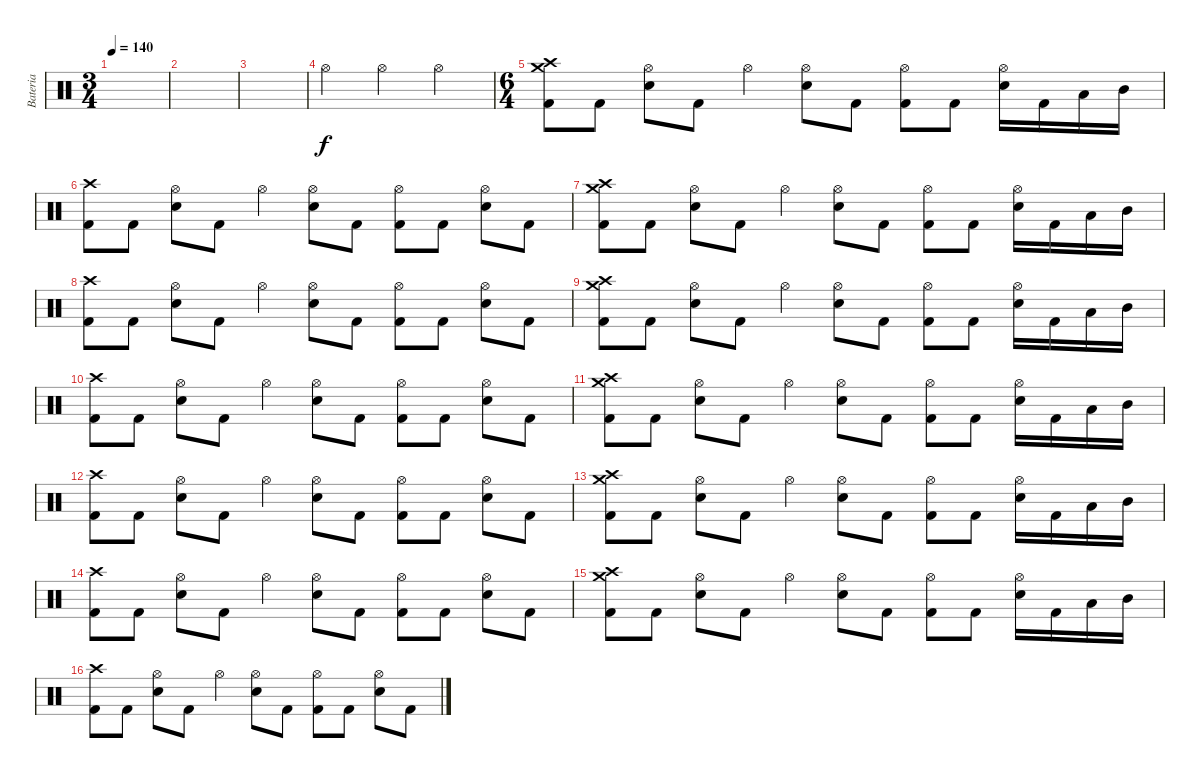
\track ("Bateria" "Bateria") {instrument percussion}
\staff {score}
\articulation defaults
\ts (3 4)
\tempo 140
\clef neutral
\ks c
|
|
|
"Hi-Hat (open)".4 "Hi-Hat (open)".4 "Hi-Hat (open)".4 |
\ts (6 4)
("Crash medium (hit)" "Crash high (hit)" "Kick (hit) 2").8 "Kick (hit) 2".8 ("Hi-Hat (open)" "Snare (hit) 2").8 "Kick (hit) 2".8 "Hi-Hat (open)".4 ("Hi-Hat (open)" "Snare (hit) 2").8 "Kick (hit) 2".8 ("Hi-Hat (open)" "Kick (hit) 2").8 "Kick (hit) 2".8 ("Hi-Hat (open)" "Snare (hit) 2").16 "Kick (hit) 2".16 "Low Tom (hit)".16 "Mid Tom (hit)".16 |
("Crash high (hit)" "Kick (hit) 2").8 "Kick (hit) 2".8 ("Hi-Hat (open)" "Snare (hit) 2").8 "Kick (hit) 2".8 "Hi-Hat (open)".4 ("Hi-Hat (open)" "Snare (hit) 2").8 "Kick (hit) 2".8 ("Hi-Hat (open)" "Kick (hit) 2").8 "Kick (hit) 2".8 ("Hi-Hat (open)" "Snare (hit) 2").8 "Kick (hit) 2".8 |
("Crash medium (hit)" "Crash high (hit)" "Kick (hit) 2").8 "Kick (hit) 2".8 ("Hi-Hat (open)" "Snare (hit) 2").8 "Kick (hit) 2".8 "Hi-Hat (open)".4 ("Hi-Hat (open)" "Snare (hit) 2").8 "Kick (hit) 2".8 ("Hi-Hat (open)" "Kick (hit) 2").8 "Kick (hit) 2".8 ("Hi-Hat (open)" "Snare (hit) 2").16 "Kick (hit) 2".16 "Low Tom (hit)".16 "Mid Tom (hit)".16 |
("Crash high (hit)" "Kick (hit) 2").8 "Kick (hit) 2".8 ("Hi-Hat (open)" "Snare (hit) 2").8 "Kick (hit) 2".8 "Hi-Hat (open)".4 ("Hi-Hat (open)" "Snare (hit) 2").8 "Kick (hit) 2".8 ("Hi-Hat (open)" "Kick (hit) 2").8 "Kick (hit) 2".8 ("Hi-Hat (open)" "Snare (hit) 2").8 "Kick (hit) 2".8 |
("Crash medium (hit)" "Crash high (hit)" "Kick (hit) 2").8 "Kick (hit) 2".8 ("Hi-Hat (open)" "Snare (hit) 2").8 "Kick (hit) 2".8 "Hi-Hat (open)".4 ("Hi-Hat (open)" "Snare (hit) 2").8 "Kick (hit) 2".8 ("Hi-Hat (open)" "Kick (hit) 2").8 "Kick (hit) 2".8 ("Hi-Hat (open)" "Snare (hit) 2").16 "Kick (hit) 2".16 "Low Tom (hit)".16 "Mid Tom (hit)".16 |
("Crash high (hit)" "Kick (hit) 2").8 "Kick (hit) 2".8 ("Hi-Hat (open)" "Snare (hit) 2").8 "Kick (hit) 2".8 "Hi-Hat (open)".4 ("Hi-Hat (open)" "Snare (hit) 2").8 "Kick (hit) 2".8 ("Hi-Hat (open)" "Kick (hit) 2").8 "Kick (hit) 2".8 ("Hi-Hat (open)" "Snare (hit) 2").8 "Kick (hit) 2".8 |
("Crash medium (hit)" "Crash high (hit)" "Kick (hit) 2").8 "Kick (hit) 2".8 ("Hi-Hat (open)" "Snare (hit) 2").8 "Kick (hit) 2".8 "Hi-Hat (open)".4 ("Hi-Hat (open)" "Snare (hit) 2").8 "Kick (hit) 2".8 ("Hi-Hat (open)" "Kick (hit) 2").8 "Kick (hit) 2".8 ("Hi-Hat (open)" "Snare (hit) 2").16 "Kick (hit) 2".16 "Low Tom (hit)".16 "Mid Tom (hit)".16 |
("Crash high (hit)" "Kick (hit) 2").8 "Kick (hit) 2".8 ("Hi-Hat (open)" "Snare (hit) 2").8 "Kick (hit) 2".8 "Hi-Hat (open)".4 ("Hi-Hat (open)" "Snare (hit) 2").8 "Kick (hit) 2".8 ("Hi-Hat (open)" "Kick (hit) 2").8 "Kick (hit) 2".8 ("Hi-Hat (open)" "Snare (hit) 2").8 "Kick (hit) 2".8 |
("Crash medium (hit)" "Crash high (hit)" "Kick (hit) 2").8 "Kick (hit) 2".8 ("Hi-Hat (open)" "Snare (hit) 2").8 "Kick (hit) 2".8 "Hi-Hat (open)".4 ("Hi-Hat (open)" "Snare (hit) 2").8 "Kick (hit) 2".8 ("Hi-Hat (open)" "Kick (hit) 2").8 "Kick (hit) 2".8 ("Hi-Hat (open)" "Snare (hit) 2").16 "Kick (hit) 2".16 "Low Tom (hit)".16 "Mid Tom (hit)".16 |
("Crash high (hit)" "Kick (hit) 2").8 "Kick (hit) 2".8 ("Hi-Hat (open)" "Snare (hit) 2").8 "Kick (hit) 2".8 "Hi-Hat (open)".4 ("Hi-Hat (open)" "Snare (hit) 2").8 "Kick (hit) 2".8 ("Hi-Hat (open)" "Kick (hit) 2").8 "Kick (hit) 2".8 ("Hi-Hat (open)" "Snare (hit) 2").8 "Kick (hit) 2".8 |
("Crash medium (hit)" "Crash high (hit)" "Kick (hit) 2").8 "Kick (hit) 2".8 ("Hi-Hat (open)" "Snare (hit) 2").8 "Kick (hit) 2".8 "Hi-Hat (open)".4 ("Hi-Hat (open)" "Snare (hit) 2").8 "Kick (hit) 2".8 ("Hi-Hat (open)" "Kick (hit) 2").8 "Kick (hit) 2".8 ("Hi-Hat (open)" "Snare (hit) 2").16 "Kick (hit) 2".16 "Low Tom (hit)".16 "Mid Tom (hit)".16 |
("Crash high (hit)" "Kick (hit) 2").8 "Kick (hit) 2".8 ("Hi-Hat (open)" "Snare (hit) 2").8 "Kick (hit) 2".8 "Hi-Hat (open)".4 ("Hi-Hat (open)" "Snare (hit) 2").8 "Kick (hit) 2".8 ("Hi-Hat (open)" "Kick (hit) 2").8 "Kick (hit) 2".8 ("Hi-Hat (open)" "Snare (hit) 2").8 "Kick (hit) 2".8
